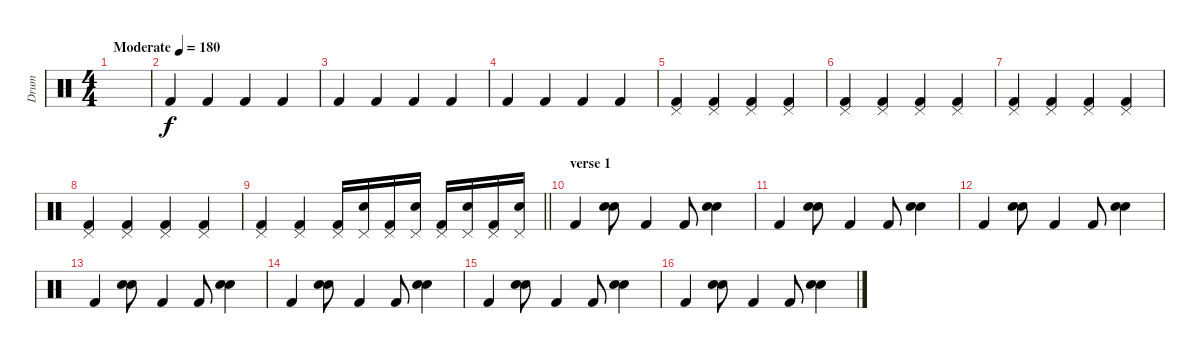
\track ("Drum" "Drum") {instrument percussion}
\staff {score}
\articulation defaults
\ts (4 4)
\tempo (180 "Moderate")
\clef neutral
\ks c
|
"Kick (hit) 2".4 "Kick (hit) 2".4 "Kick (hit) 2".4 "Kick (hit) 2".4 |
"Kick (hit) 2".4 "Kick (hit) 2".4 "Kick (hit) 2".4 "Kick (hit) 2".4 |
"Kick (hit) 2".4 "Kick (hit) 2".4 "Kick (hit) 2".4 "Kick (hit) 2".4 |
("Kick (hit) 2" "Pedal Hi-Hat (hit)").4 ("Kick (hit) 2" "Pedal Hi-Hat (hit)").4 ("Kick (hit) 2" "Pedal Hi-Hat (hit)").4 ("Kick (hit) 2" "Pedal Hi-Hat (hit)").4 |
("Kick (hit) 2" "Pedal Hi-Hat (hit)").4 ("Kick (hit) 2" "Pedal Hi-Hat (hit)").4 ("Kick (hit) 2" "Pedal Hi-Hat (hit)").4 ("Kick (hit) 2" "Pedal Hi-Hat (hit)").4 |
("Kick (hit) 2" "Pedal Hi-Hat (hit)").4 ("Kick (hit) 2" "Pedal Hi-Hat (hit)").4 ("Kick (hit) 2" "Pedal Hi-Hat (hit)").4 ("Kick (hit) 2" "Pedal Hi-Hat (hit)").4 |
("Kick (hit) 2" "Pedal Hi-Hat (hit)").4 ("Kick (hit) 2" "Pedal Hi-Hat (hit)").4 ("Kick (hit) 2" "Pedal Hi-Hat (hit)").4 ("Kick (hit) 2" "Pedal Hi-Hat (hit)").4 |
\barLineRight lightlight
("Kick (hit) 2" "Pedal Hi-Hat (hit)").4 ("Kick (hit) 2" "Pedal Hi-Hat (hit)").4 ("Kick (hit) 2" "Pedal Hi-Hat (hit)").16 ("Snare (hit) 2" "Pedal Hi-Hat (hit)").16 ("Kick (hit) 2" "Pedal Hi-Hat (hit)").16 ("Snare (hit) 2" "Pedal Hi-Hat (hit)").16 ("Kick (hit) 2" "Pedal Hi-Hat (hit)").16 ("Snare (hit) 2" "Pedal Hi-Hat (hit)").16 ("Kick (hit) 2" "Pedal Hi-Hat (hit)").16 ("Snare (hit) 2" "Pedal Hi-Hat (hit)").16 |
\section ("" "verse 1")
"Kick (hit) 2".4 ("Snare (hit) 2" "Electric Snare (hit)").8 "Kick (hit) 2".4 "Kick (hit) 2".8 ("Snare (hit) 2" "Electric Snare (hit)").4 |
"Kick (hit) 2".4 ("Snare (hit) 2" "Electric Snare (hit)").8 "Kick (hit) 2".4 "Kick (hit) 2".8 ("Snare (hit) 2" "Electric Snare (hit)").4 |
"Kick (hit) 2".4 ("Snare (hit) 2" "Electric Snare (hit)").8 "Kick (hit) 2".4 "Kick (hit) 2".8 ("Snare (hit) 2" "Electric Snare (hit)").4 |
"Kick (hit) 2".4 ("Snare (hit) 2" "Electric Snare (hit)").8 "Kick (hit) 2".4 "Kick (hit) 2".8 ("Snare (hit) 2" "Electric Snare (hit)").4 |
"Kick (hit) 2".4 ("Snare (hit) 2" "Electric Snare (hit)").8 "Kick (hit) 2".4 "Kick (hit) 2".8 ("Snare (hit) 2" "Electric Snare (hit)").4 |
"Kick (hit) 2".4 ("Snare (hit) 2" "Electric Snare (hit)").8 "Kick (hit) 2".4 "Kick (hit) 2".8 ("Snare (hit) 2" "Electric Snare (hit)").4 |
"Kick (hit) 2".4 ("Snare (hit) 2" "Electric Snare (hit)").8 "Kick (hit) 2".4 "Kick (hit) 2".8 ("Snare (hit) 2" "Electric Snare (hit)").4
